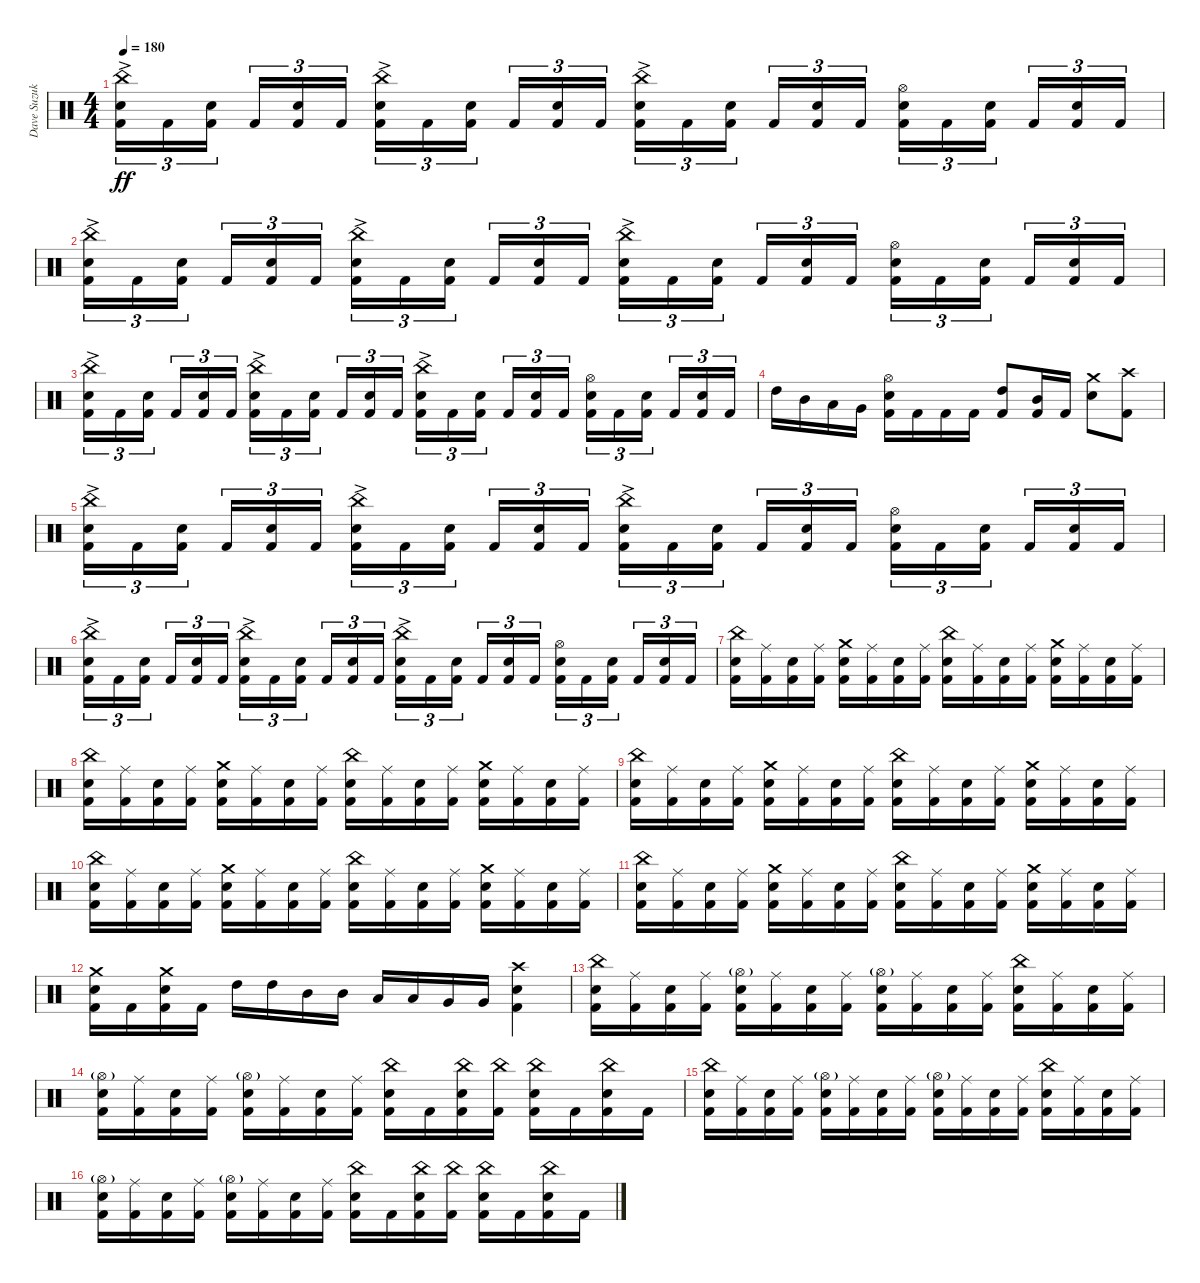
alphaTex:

\track ("Dave Suzuki - Drums" "Dave Suzuk") {instrument percussion}
\staff {score}
\articulation defaults
\ts (4 4)
\tempo 180
\clef neutral
\ks c
("China (hit)" "Electric Snare (hit)"{ac} "Kick (hit) 2").16{tu (3 2) dy ff} "Kick (hit) 2".16{tu (3 2)} ("Electric Snare (hit)" "Kick (hit) 2").16{tu (3 2) beam splitsecondary} "Kick (hit) 2".16{tu (3 2)} ("Electric Snare (hit)" "Kick (hit) 2").16{tu (3 2)} "Kick (hit) 2".16{tu (3 2)} ("China (hit)" "Electric Snare (hit)"{ac} "Kick (hit) 2").16{tu (3 2)} "Kick (hit) 2".16{tu (3 2)} ("Electric Snare (hit)" "Kick (hit) 2").16{tu (3 2) beam splitsecondary} "Kick (hit) 2".16{tu (3 2)} ("Electric Snare (hit)" "Kick (hit) 2").16{tu (3 2)} "Kick (hit) 2".16{tu (3 2)} ("China (hit)" "Electric Snare (hit)"{ac} "Kick (hit) 2").16{tu (3 2)} "Kick (hit) 2".16{tu (3 2)} ("Electric Snare (hit)" "Kick (hit) 2").16{tu (3 2) beam splitsecondary} "Kick (hit) 2".16{tu (3 2)} ("Electric Snare (hit)" "Kick (hit) 2").16{tu (3 2)} "Kick (hit) 2".16{tu (3 2)} ("Hi-Hat (open)" "Electric Snare (hit)" "Kick (hit) 2").16{tu (3 2)} "Kick (hit) 2".16{tu (3 2)} ("Electric Snare (hit)" "Kick (hit) 2").16{tu (3 2) beam splitsecondary} "Kick (hit) 2".16{tu (3 2)} ("Electric Snare (hit)" "Kick (hit) 2").16{tu (3 2)} "Kick (hit) 2".16{tu (3 2)} |
("China (hit)" "Electric Snare (hit)"{ac} "Kick (hit) 2").16{tu (3 2)} "Kick (hit) 2".16{tu (3 2)} ("Electric Snare (hit)" "Kick (hit) 2").16{tu (3 2) beam splitsecondary} "Kick (hit) 2".16{tu (3 2)} ("Electric Snare (hit)" "Kick (hit) 2").16{tu (3 2)} "Kick (hit) 2".16{tu (3 2)} ("China (hit)" "Electric Snare (hit)"{ac} "Kick (hit) 2").16{tu (3 2)} "Kick (hit) 2".16{tu (3 2)} ("Electric Snare (hit)" "Kick (hit) 2").16{tu (3 2) beam splitsecondary} "Kick (hit) 2".16{tu (3 2)} ("Electric Snare (hit)" "Kick (hit) 2").16{tu (3 2)} "Kick (hit) 2".16{tu (3 2)} ("China (hit)" "Electric Snare (hit)"{ac} "Kick (hit) 2").16{tu (3 2)} "Kick (hit) 2".16{tu (3 2)} ("Electric Snare (hit)" "Kick (hit) 2").16{tu (3 2) beam splitsecondary} "Kick (hit) 2".16{tu (3 2)} ("Electric Snare (hit)" "Kick (hit) 2").16{tu (3 2)} "Kick (hit) 2".16{tu (3 2)} ("Hi-Hat (open)" "Electric Snare (hit)" "Kick (hit) 2").16{tu (3 2)} "Kick (hit) 2".16{tu (3 2)} ("Electric Snare (hit)" "Kick (hit) 2").16{tu (3 2) beam splitsecondary} "Kick (hit) 2".16{tu (3 2)} ("Electric Snare (hit)" "Kick (hit) 2").16{tu (3 2)} "Kick (hit) 2".16{tu (3 2)} |
("China (hit)" "Electric Snare (hit)"{ac} "Kick (hit) 2").16{tu (3 2)} "Kick (hit) 2".16{tu (3 2)} ("Electric Snare (hit)" "Kick (hit) 2").16{tu (3 2) beam splitsecondary} "Kick (hit) 2".16{tu (3 2)} ("Electric Snare (hit)" "Kick (hit) 2").16{tu (3 2)} "Kick (hit) 2".16{tu (3 2)} ("China (hit)" "Electric Snare (hit)"{ac} "Kick (hit) 2").16{tu (3 2)} "Kick (hit) 2".16{tu (3 2)} ("Electric Snare (hit)" "Kick (hit) 2").16{tu (3 2) beam splitsecondary} "Kick (hit) 2".16{tu (3 2)} ("Electric Snare (hit)" "Kick (hit) 2").16{tu (3 2)} "Kick (hit) 2".16{tu (3 2)} ("China (hit)" "Electric Snare (hit)"{ac} "Kick (hit) 2").16{tu (3 2)} "Kick (hit) 2".16{tu (3 2)} ("Electric Snare (hit)" "Kick (hit) 2").16{tu (3 2) beam splitsecondary} "Kick (hit) 2".16{tu (3 2)} ("Electric Snare (hit)" "Kick (hit) 2").16{tu (3 2)} "Kick (hit) 2".16{tu (3 2)} ("Hi-Hat (open)" "Electric Snare (hit)" "Kick (hit) 2").16{tu (3 2)} "Kick (hit) 2".16{tu (3 2)} ("Electric Snare (hit)" "Kick (hit) 2").16{tu (3 2) beam splitsecondary} "Kick (hit) 2".16{tu (3 2)} ("Electric Snare (hit)" "Kick (hit) 2").16{tu (3 2)} "Kick (hit) 2".16{tu (3 2)} |
"High Tom (hit)".16 "Mid Tom (hit)".16 "Low Tom (hit)".16 "Very Low Tom (hit)".16 ("Hi-Hat (open)" "Electric Snare (hit)" "Kick (hit) 2").16 "Kick (hit) 2".16 "Kick (hit) 2".16 "Kick (hit) 2".16 ("High Tom (hit)" "Kick (hit) 2").8 ("Mid Tom (hit)" "Kick (hit) 2").16 "Kick (hit) 2".16 ("Crash medium (hit)" "Electric Snare (hit)").8 ("Crash high (hit)" "Kick (hit) 2").8 |
("China (hit)" "Electric Snare (hit)"{ac} "Kick (hit) 2").16{tu (3 2)} "Kick (hit) 2".16{tu (3 2)} ("Electric Snare (hit)" "Kick (hit) 2").16{tu (3 2) beam splitsecondary} "Kick (hit) 2".16{tu (3 2)} ("Electric Snare (hit)" "Kick (hit) 2").16{tu (3 2)} "Kick (hit) 2".16{tu (3 2)} ("China (hit)" "Electric Snare (hit)"{ac} "Kick (hit) 2").16{tu (3 2)} "Kick (hit) 2".16{tu (3 2)} ("Electric Snare (hit)" "Kick (hit) 2").16{tu (3 2) beam splitsecondary} "Kick (hit) 2".16{tu (3 2)} ("Electric Snare (hit)" "Kick (hit) 2").16{tu (3 2)} "Kick (hit) 2".16{tu (3 2)} ("China (hit)" "Electric Snare (hit)"{ac} "Kick (hit) 2").16{tu (3 2)} "Kick (hit) 2".16{tu (3 2)} ("Electric Snare (hit)" "Kick (hit) 2").16{tu (3 2) beam splitsecondary} "Kick (hit) 2".16{tu (3 2)} ("Electric Snare (hit)" "Kick (hit) 2").16{tu (3 2)} "Kick (hit) 2".16{tu (3 2)} ("Hi-Hat (open)" "Electric Snare (hit)" "Kick (hit) 2").16{tu (3 2)} "Kick (hit) 2".16{tu (3 2)} ("Electric Snare (hit)" "Kick (hit) 2").16{tu (3 2) beam splitsecondary} "Kick (hit) 2".16{tu (3 2)} ("Electric Snare (hit)" "Kick (hit) 2").16{tu (3 2)} "Kick (hit) 2".16{tu (3 2)} |
("China (hit)" "Electric Snare (hit)"{ac} "Kick (hit) 2").16{tu (3 2)} "Kick (hit) 2".16{tu (3 2)} ("Electric Snare (hit)" "Kick (hit) 2").16{tu (3 2) beam splitsecondary} "Kick (hit) 2".16{tu (3 2)} ("Electric Snare (hit)" "Kick (hit) 2").16{tu (3 2)} "Kick (hit) 2".16{tu (3 2)} ("China (hit)" "Electric Snare (hit)"{ac} "Kick (hit) 2").16{tu (3 2)} "Kick (hit) 2".16{tu (3 2)} ("Electric Snare (hit)" "Kick (hit) 2").16{tu (3 2) beam splitsecondary} "Kick (hit) 2".16{tu (3 2)} ("Electric Snare (hit)" "Kick (hit) 2").16{tu (3 2)} "Kick (hit) 2".16{tu (3 2)} ("China (hit)" "Electric Snare (hit)"{ac} "Kick (hit) 2").16{tu (3 2)} "Kick (hit) 2".16{tu (3 2)} ("Electric Snare (hit)" "Kick (hit) 2").16{tu (3 2) beam splitsecondary} "Kick (hit) 2".16{tu (3 2)} ("Electric Snare (hit)" "Kick (hit) 2").16{tu (3 2)} "Kick (hit) 2".16{tu (3 2)} ("Hi-Hat (open)" "Electric Snare (hit)" "Kick (hit) 2").16{tu (3 2)} "Kick (hit) 2".16{tu (3 2)} ("Electric Snare (hit)" "Kick (hit) 2").16{tu (3 2) beam splitsecondary} "Kick (hit) 2".16{tu (3 2)} ("Electric Snare (hit)" "Kick (hit) 2").16{tu (3 2)} "Kick (hit) 2".16{tu (3 2)} |
("China (hit)" "Electric Snare (hit)" "Kick (hit) 2").16 ("Ride (middle)" "Kick (hit) 2").16 ("Electric Snare (hit)" "Kick (hit) 2").16 ("Ride (middle)" "Kick (hit) 2").16 ("Crash medium (hit)" "Electric Snare (hit)" "Kick (hit) 2").16 ("Ride (middle)" "Kick (hit) 2").16 ("Electric Snare (hit)" "Kick (hit) 2").16 ("Ride (middle)" "Kick (hit) 2").16 ("China (hit)" "Electric Snare (hit)" "Kick (hit) 2").16 ("Ride (middle)" "Kick (hit) 2").16 ("Electric Snare (hit)" "Kick (hit) 2").16 ("Ride (middle)" "Kick (hit) 2").16 ("Crash medium (hit)" "Electric Snare (hit)" "Kick (hit) 2").16 ("Ride (middle)" "Kick (hit) 2").16 ("Electric Snare (hit)" "Kick (hit) 2").16 ("Ride (middle)" "Kick (hit) 2").16 |
("China (hit)" "Electric Snare (hit)" "Kick (hit) 2").16 ("Ride (middle)" "Kick (hit) 2").16 ("Electric Snare (hit)" "Kick (hit) 2").16 ("Ride (middle)" "Kick (hit) 2").16 ("Crash medium (hit)" "Electric Snare (hit)" "Kick (hit) 2").16 ("Ride (middle)" "Kick (hit) 2").16 ("Electric Snare (hit)" "Kick (hit) 2").16 ("Ride (middle)" "Kick (hit) 2").16 ("China (hit)" "Electric Snare (hit)" "Kick (hit) 2").16 ("Ride (middle)" "Kick (hit) 2").16 ("Electric Snare (hit)" "Kick (hit) 2").16 ("Ride (middle)" "Kick (hit) 2").16 ("Crash medium (hit)" "Electric Snare (hit)" "Kick (hit) 2").16 ("Ride (middle)" "Kick (hit) 2").16 ("Electric Snare (hit)" "Kick (hit) 2").16 ("Ride (middle)" "Kick (hit) 2").16 |
("China (hit)" "Electric Snare (hit)" "Kick (hit) 2").16 ("Ride (middle)" "Kick (hit) 2").16 ("Electric Snare (hit)" "Kick (hit) 2").16 ("Ride (middle)" "Kick (hit) 2").16 ("Crash medium (hit)" "Electric Snare (hit)" "Kick (hit) 2").16 ("Ride (middle)" "Kick (hit) 2").16 ("Electric Snare (hit)" "Kick (hit) 2").16 ("Ride (middle)" "Kick (hit) 2").16 ("China (hit)" "Electric Snare (hit)" "Kick (hit) 2").16 ("Ride (middle)" "Kick (hit) 2").16 ("Electric Snare (hit)" "Kick (hit) 2").16 ("Ride (middle)" "Kick (hit) 2").16 ("Crash medium (hit)" "Electric Snare (hit)" "Kick (hit) 2").16 ("Ride (middle)" "Kick (hit) 2").16 ("Electric Snare (hit)" "Kick (hit) 2").16 ("Ride (middle)" "Kick (hit) 2").16 |
("China (hit)" "Electric Snare (hit)" "Kick (hit) 2").16 ("Ride (middle)" "Kick (hit) 2").16 ("Electric Snare (hit)" "Kick (hit) 2").16 ("Ride (middle)" "Kick (hit) 2").16 ("Crash medium (hit)" "Electric Snare (hit)" "Kick (hit) 2").16 ("Ride (middle)" "Kick (hit) 2").16 ("Electric Snare (hit)" "Kick (hit) 2").16 ("Ride (middle)" "Kick (hit) 2").16 ("China (hit)" "Electric Snare (hit)" "Kick (hit) 2").16 ("Ride (middle)" "Kick (hit) 2").16 ("Electric Snare (hit)" "Kick (hit) 2").16 ("Ride (middle)" "Kick (hit) 2").16 ("Crash medium (hit)" "Electric Snare (hit)" "Kick (hit) 2").16 ("Ride (middle)" "Kick (hit) 2").16 ("Electric Snare (hit)" "Kick (hit) 2").16 ("Ride (middle)" "Kick (hit) 2").16 |
("China (hit)" "Electric Snare (hit)" "Kick (hit) 2").16 ("Ride (middle)" "Kick (hit) 2").16 ("Electric Snare (hit)" "Kick (hit) 2").16 ("Ride (middle)" "Kick (hit) 2").16 ("Crash medium (hit)" "Electric Snare (hit)" "Kick (hit) 2").16 ("Ride (middle)" "Kick (hit) 2").16 ("Electric Snare (hit)" "Kick (hit) 2").16 ("Ride (middle)" "Kick (hit) 2").16 ("China (hit)" "Electric Snare (hit)" "Kick (hit) 2").16 ("Ride (middle)" "Kick (hit) 2").16 ("Electric Snare (hit)" "Kick (hit) 2").16 ("Ride (middle)" "Kick (hit) 2").16 ("Crash medium (hit)" "Electric Snare (hit)" "Kick (hit) 2").16 ("Ride (middle)" "Kick (hit) 2").16 ("Electric Snare (hit)" "Kick (hit) 2").16 ("Ride (middle)" "Kick (hit) 2").16 |
("Crash medium (hit)" "Electric Snare (hit)" "Kick (hit) 2").16 "Kick (hit) 2".16 ("Crash medium (hit)" "Electric Snare (hit)" "Kick (hit) 2").16 "Kick (hit) 2".16 "High Tom (hit)".16 "High Tom (hit)".16 "Mid Tom (hit)".16 "Mid Tom (hit)".16 "Low Tom (hit)".16 "Low Tom (hit)".16 "Very Low Tom (hit)".16 "Very Low Tom (hit)".16 ("Crash high (hit)" "Electric Snare (hit)" "Kick (hit) 2").4 |
("China (hit)" "Electric Snare (hit)" "Kick (hit) 2").16 ("Ride (middle)" "Kick (hit) 2").16 ("Electric Snare (hit)" "Kick (hit) 2").16 ("Ride (middle)" "Kick (hit) 2").16 ("Hi-Hat (open)"{g} "Electric Snare (hit)" "Kick (hit) 2").16 ("Ride (middle)" "Kick (hit) 2").16 ("Electric Snare (hit)" "Kick (hit) 2").16 ("Ride (middle)" "Kick (hit) 2").16 ("Hi-Hat (open)"{g} "Electric Snare (hit)" "Kick (hit) 2").16 ("Ride (middle)" "Kick (hit) 2").16 ("Electric Snare (hit)" "Kick (hit) 2").16 ("Ride (middle)" "Kick (hit) 2").16 ("China (hit)" "Electric Snare (hit)" "Kick (hit) 2").16 ("Ride (middle)" "Kick (hit) 2").16 ("Electric Snare (hit)" "Kick (hit) 2").16 ("Ride (middle)" "Kick (hit) 2").16 |
("Hi-Hat (open)"{g} "Electric Snare (hit)" "Kick (hit) 2").16 ("Ride (middle)" "Kick (hit) 2").16 ("Electric Snare (hit)" "Kick (hit) 2").16 ("Ride (middle)" "Kick (hit) 2").16 ("Hi-Hat (open)"{g} "Electric Snare (hit)" "Kick (hit) 2").16 ("Ride (middle)" "Kick (hit) 2").16 ("Electric Snare (hit)" "Kick (hit) 2").16 ("Ride (middle)" "Kick (hit) 2").16 ("China (hit)" "Electric Snare (hit)" "Kick (hit) 2").16 "Kick (hit) 2".16 ("China (hit)" "Electric Snare (hit)" "Kick (hit) 2").16 ("China (hit)" "Kick (hit) 2").16 ("China (hit)" "Electric Snare (hit)" "Kick (hit) 2").16 "Kick (hit) 2".16 ("China (hit)" "Electric Snare (hit)" "Kick (hit) 2").16 "Kick (hit) 2".16 |
("China (hit)" "Electric Snare (hit)" "Kick (hit) 2").16 ("Ride (middle)" "Kick (hit) 2").16 ("Electric Snare (hit)" "Kick (hit) 2").16 ("Ride (middle)" "Kick (hit) 2").16 ("Hi-Hat (open)"{g} "Electric Snare (hit)" "Kick (hit) 2").16 ("Ride (middle)" "Kick (hit) 2").16 ("Electric Snare (hit)" "Kick (hit) 2").16 ("Ride (middle)" "Kick (hit) 2").16 ("Hi-Hat (open)"{g} "Electric Snare (hit)" "Kick (hit) 2").16 ("Ride (middle)" "Kick (hit) 2").16 ("Electric Snare (hit)" "Kick (hit) 2").16 ("Ride (middle)" "Kick (hit) 2").16 ("China (hit)" "Electric Snare (hit)" "Kick (hit) 2").16 ("Ride (middle)" "Kick (hit) 2").16 ("Electric Snare (hit)" "Kick (hit) 2").16 ("Ride (middle)" "Kick (hit) 2").16 |
("Hi-Hat (open)"{g} "Electric Snare (hit)" "Kick (hit) 2").16 ("Ride (middle)" "Kick (hit) 2").16 ("Electric Snare (hit)" "Kick (hit) 2").16 ("Ride (middle)" "Kick (hit) 2").16 ("Hi-Hat (open)"{g} "Electric Snare (hit)" "Kick (hit) 2").16 ("Ride (middle)" "Kick (hit) 2").16 ("Electric Snare (hit)" "Kick (hit) 2").16 ("Ride (middle)" "Kick (hit) 2").16 ("China (hit)" "Electric Snare (hit)" "Kick (hit) 2").16 "Kick (hit) 2".16 ("China (hit)" "Electric Snare (hit)" "Kick (hit) 2").16 ("China (hit)" "Kick (hit) 2").16 ("China (hit)" "Electric Snare (hit)" "Kick (hit) 2").16 "Kick (hit) 2".16 ("China (hit)" "Electric Snare (hit)" "Kick (hit) 2").16 "Kick (hit) 2".16
